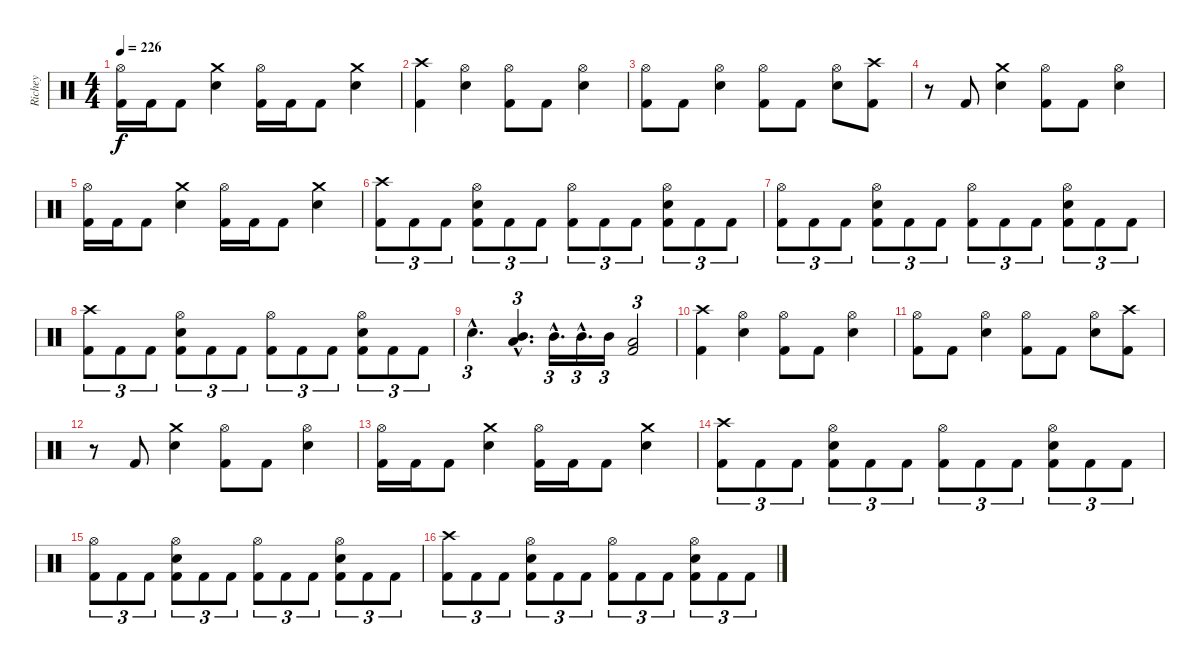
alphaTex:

\track ("Richey" "Richey") {instrument percussion}
\staff {score}
\articulation defaults
\ts (4 4)
\tempo 226
\clef neutral
\ks c
("Hi-Hat (open)" "Kick (hit) 2").16{dy f} "Kick (hit) 2".16 "Kick (hit) 2".8 ("Crash medium (hit)" "Snare (hit) 2").4 ("Hi-Hat (open)" "Kick (hit) 2").16 "Kick (hit) 2".16 "Kick (hit) 2".8 ("Crash medium (hit)" "Snare (hit) 2").4 |
("Crash high (hit)" "Kick (hit) 2").4 ("Hi-Hat (open)" "Snare (hit) 2").4 ("Hi-Hat (open)" "Kick (hit) 2").8 "Kick (hit) 2".8 ("Hi-Hat (open)" "Snare (hit) 2").4 |
("Hi-Hat (open)" "Kick (hit) 2").8 "Kick (hit) 2".8 ("Hi-Hat (open)" "Snare (hit) 2").4 ("Hi-Hat (open)" "Kick (hit) 2").8 "Kick (hit) 2".8 ("Hi-Hat (open)" "Snare (hit) 2").8 ("Crash high (hit)" "Kick (hit) 2").8 |
r.8 "Kick (hit) 2".8 ("Crash medium (hit)" "Snare (hit) 2").4 ("Hi-Hat (open)" "Kick (hit) 2").8 "Kick (hit) 2".8 ("Hi-Hat (open)" "Snare (hit) 2").4 |
("Hi-Hat (open)" "Kick (hit) 2").16 "Kick (hit) 2".16 "Kick (hit) 2".8 ("Crash medium (hit)" "Snare (hit) 2").4 ("Hi-Hat (open)" "Kick (hit) 2").16 "Kick (hit) 2".16 "Kick (hit) 2".8 ("Crash medium (hit)" "Snare (hit) 2").4 |
("Crash high (hit)" "Kick (hit) 2").8{tu (3 2)} "Kick (hit) 2".8{tu (3 2)} "Kick (hit) 2".8{tu (3 2)} ("Hi-Hat (open)" "Snare (hit) 2" "Kick (hit) 2").8{tu (3 2)} "Kick (hit) 2".8{tu (3 2)} "Kick (hit) 2".8{tu (3 2)} ("Hi-Hat (open)" "Kick (hit) 2").8{tu (3 2)} "Kick (hit) 2".8{tu (3 2)} "Kick (hit) 2".8{tu (3 2)} ("Hi-Hat (open)" "Snare (hit) 2" "Kick (hit) 2").8{tu (3 2)} "Kick (hit) 2".8{tu (3 2)} "Kick (hit) 2".8{tu (3 2)} |
("Hi-Hat (open)" "Kick (hit) 2").8{tu (3 2)} "Kick (hit) 2".8{tu (3 2)} "Kick (hit) 2".8{tu (3 2)} ("Hi-Hat (open)" "Snare (hit) 2" "Kick (hit) 2").8{tu (3 2)} "Kick (hit) 2".8{tu (3 2)} "Kick (hit) 2".8{tu (3 2)} ("Hi-Hat (open)" "Kick (hit) 2").8{tu (3 2)} "Kick (hit) 2".8{tu (3 2)} "Kick (hit) 2".8{tu (3 2)} ("Hi-Hat (open)" "Snare (hit) 2" "Kick (hit) 2").8{tu (3 2)} "Kick (hit) 2".8{tu (3 2)} "Kick (hit) 2".8{tu (3 2)} |
("Crash high (hit)" "Kick (hit) 2").8{tu (3 2)} "Kick (hit) 2".8{tu (3 2)} "Kick (hit) 2".8{tu (3 2)} ("Hi-Hat (open)" "Snare (hit) 2" "Kick (hit) 2").8{tu (3 2)} "Kick (hit) 2".8{tu (3 2)} "Kick (hit) 2".8{tu (3 2)} ("Hi-Hat (open)" "Kick (hit) 2").8{tu (3 2)} "Kick (hit) 2".8{tu (3 2)} "Kick (hit) 2".8{tu (3 2)} ("Hi-Hat (open)" "Snare (hit) 2" "Kick (hit) 2").8{tu (3 2)} "Kick (hit) 2".8{tu (3 2)} "Kick (hit) 2".8{tu (3 2)} |
"Snare (hit) 2"{hac}.4{d tu (3 2)} ("Mid Tom (hit)"{hac} "Low Tom (hit)"{hac}).4{d tu (3 2)} "Mid Tom (hit)"{hac}.16{d tu (3 2)} "Mid Tom (hit)"{hac}.16{d tu (3 2)} "Mid Tom (hit)".16{tu (3 2)} ("Low Tom (hit)" "Kick (hit) 2").2{tu (3 2)} |
("Crash high (hit)" "Kick (hit) 2").4 ("Hi-Hat (open)" "Snare (hit) 2").4 ("Hi-Hat (open)" "Kick (hit) 2").8 "Kick (hit) 2".8 ("Hi-Hat (open)" "Snare (hit) 2").4 |
("Hi-Hat (open)" "Kick (hit) 2").8 "Kick (hit) 2".8 ("Hi-Hat (open)" "Snare (hit) 2").4 ("Hi-Hat (open)" "Kick (hit) 2").8 "Kick (hit) 2".8 ("Hi-Hat (open)" "Snare (hit) 2").8 ("Crash high (hit)" "Kick (hit) 2").8 |
r.8 "Kick (hit) 2".8 ("Crash medium (hit)" "Snare (hit) 2").4 ("Hi-Hat (open)" "Kick (hit) 2").8 "Kick (hit) 2".8 ("Hi-Hat (open)" "Snare (hit) 2").4 |
("Hi-Hat (open)" "Kick (hit) 2").16 "Kick (hit) 2".16 "Kick (hit) 2".8 ("Crash medium (hit)" "Snare (hit) 2").4 ("Hi-Hat (open)" "Kick (hit) 2").16 "Kick (hit) 2".16 "Kick (hit) 2".8 ("Crash medium (hit)" "Snare (hit) 2").4 |
("Crash high (hit)" "Kick (hit) 2").8{tu (3 2)} "Kick (hit) 2".8{tu (3 2)} "Kick (hit) 2".8{tu (3 2)} ("Hi-Hat (open)" "Snare (hit) 2" "Kick (hit) 2").8{tu (3 2)} "Kick (hit) 2".8{tu (3 2)} "Kick (hit) 2".8{tu (3 2)} ("Hi-Hat (open)" "Kick (hit) 2").8{tu (3 2)} "Kick (hit) 2".8{tu (3 2)} "Kick (hit) 2".8{tu (3 2)} ("Hi-Hat (open)" "Snare (hit) 2" "Kick (hit) 2").8{tu (3 2)} "Kick (hit) 2".8{tu (3 2)} "Kick (hit) 2".8{tu (3 2)} |
("Hi-Hat (open)" "Kick (hit) 2").8{tu (3 2)} "Kick (hit) 2".8{tu (3 2)} "Kick (hit) 2".8{tu (3 2)} ("Hi-Hat (open)" "Snare (hit) 2" "Kick (hit) 2").8{tu (3 2)} "Kick (hit) 2".8{tu (3 2)} "Kick (hit) 2".8{tu (3 2)} ("Hi-Hat (open)" "Kick (hit) 2").8{tu (3 2)} "Kick (hit) 2".8{tu (3 2)} "Kick (hit) 2".8{tu (3 2)} ("Hi-Hat (open)" "Snare (hit) 2" "Kick (hit) 2").8{tu (3 2)} "Kick (hit) 2".8{tu (3 2)} "Kick (hit) 2".8{tu (3 2)} |
("Crash high (hit)" "Kick (hit) 2").8{tu (3 2)} "Kick (hit) 2".8{tu (3 2)} "Kick (hit) 2".8{tu (3 2)} ("Hi-Hat (open)" "Snare (hit) 2" "Kick (hit) 2").8{tu (3 2)} "Kick (hit) 2".8{tu (3 2)} "Kick (hit) 2".8{tu (3 2)} ("Hi-Hat (open)" "Kick (hit) 2").8{tu (3 2)} "Kick (hit) 2".8{tu (3 2)} "Kick (hit) 2".8{tu (3 2)} ("Hi-Hat (open)" "Snare (hit) 2" "Kick (hit) 2").8{tu (3 2)} "Kick (hit) 2".8{tu (3 2)} "Kick (hit) 2".8{tu (3 2)}
